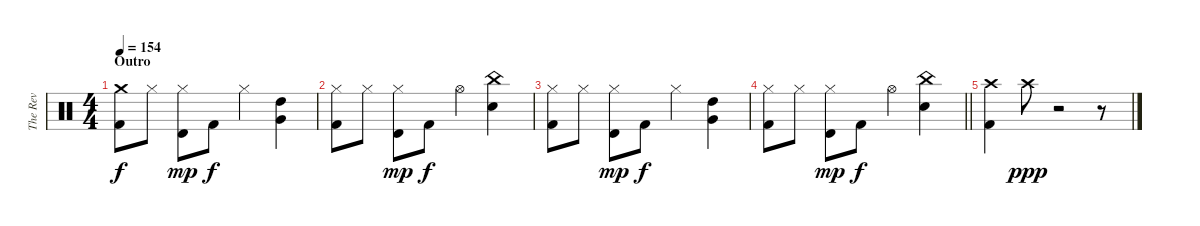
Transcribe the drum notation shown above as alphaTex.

\track ("The Rev" "The Rev") {instrument percussion}
\staff {score}
\articulation defaults
\ts (4 4)
\section ("" "Outro")
\tempo 154
\clef neutral
\ks c
("Crash medium (hit)" "Kick (hit) 2").8{dy f} "Hi-Hat (closed)".8 ("Hi-Hat (closed)" "Timbale high (hit)").8{dy mp} "Kick (hit) 2".8{dy f} "Hi-Hat (closed)".4 ("High Tom (hit)" "Very Low Tom (hit)").4 |
("Hi-Hat (closed)" "Kick (hit) 2").8 "Hi-Hat (closed)".8 ("Hi-Hat (closed)" "Timbale high (hit)").8{dy mp} "Kick (hit) 2".8{dy f} "Hi-Hat (open)".4 ("China (hit)" "Snare (hit) 2").4 |
("Hi-Hat (closed)" "Kick (hit) 2").8 "Hi-Hat (closed)".8 ("Hi-Hat (closed)" "Timbale high (hit)").8{dy mp} "Kick (hit) 2".8{dy f} "Hi-Hat (closed)".4 ("High Tom (hit)" "Very Low Tom (hit)").4 |
\barLineRight lightlight
("Hi-Hat (closed)" "Kick (hit) 2").8 "Hi-Hat (closed)".8 ("Hi-Hat (closed)" "Timbale high (hit)").8{dy mp} "Kick (hit) 2".8{dy f} "Hi-Hat (open)".4 ("China (hit)" "Snare (hit) 2").4 |
("Crash high (hit)" "Kick (hit) 2").4 "Crash high (hit)".8{dy ppp} r.2 r.8
